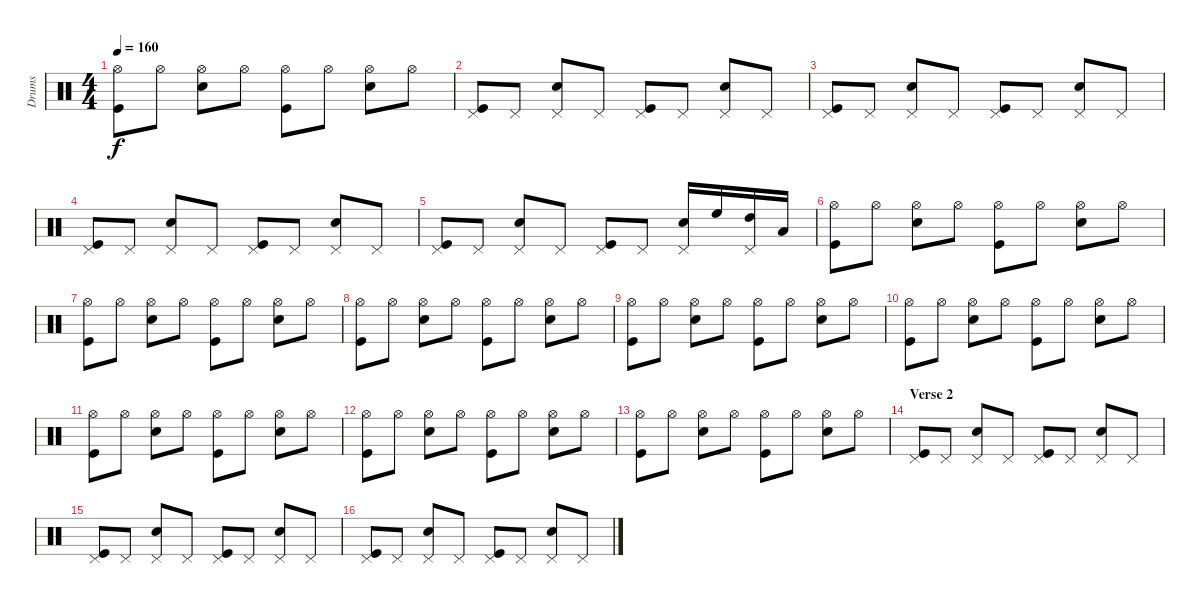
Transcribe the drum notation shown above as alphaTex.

\track ("Drums" "Drums") {instrument percussion}
\staff {score}
\articulation defaults
\ts (4 4)
\tempo 160
\clef neutral
\ks c
("Hi-Hat (open)" "Kick (hit)").8{dy f} "Hi-Hat (open)".8 ("Hi-Hat (open)" "Snare (hit) 2").8 "Hi-Hat (open)".8 ("Hi-Hat (open)" "Kick (hit)").8 "Hi-Hat (open)".8 ("Hi-Hat (open)" "Snare (hit) 2").8 "Hi-Hat (open)".8 |
("Pedal Hi-Hat (hit)" "Kick (hit)").8 "Pedal Hi-Hat (hit)".8 ("Pedal Hi-Hat (hit)" "Snare (hit) 2").8 "Pedal Hi-Hat (hit)".8 ("Pedal Hi-Hat (hit)" "Kick (hit)").8 "Pedal Hi-Hat (hit)".8 ("Pedal Hi-Hat (hit)" "Snare (hit) 2").8 "Pedal Hi-Hat (hit)".8 |
("Pedal Hi-Hat (hit)" "Kick (hit)").8 "Pedal Hi-Hat (hit)".8 ("Pedal Hi-Hat (hit)" "Snare (hit) 2").8 "Pedal Hi-Hat (hit)".8 ("Pedal Hi-Hat (hit)" "Kick (hit)").8 "Pedal Hi-Hat (hit)".8 ("Pedal Hi-Hat (hit)" "Snare (hit) 2").8 "Pedal Hi-Hat (hit)".8 |
("Pedal Hi-Hat (hit)" "Kick (hit)").8 "Pedal Hi-Hat (hit)".8 ("Pedal Hi-Hat (hit)" "Snare (hit) 2").8 "Pedal Hi-Hat (hit)".8 ("Pedal Hi-Hat (hit)" "Kick (hit)").8 "Pedal Hi-Hat (hit)".8 ("Pedal Hi-Hat (hit)" "Snare (hit) 2").8 "Pedal Hi-Hat (hit)".8 |
("Pedal Hi-Hat (hit)" "Kick (hit)").8 "Pedal Hi-Hat (hit)".8 ("Pedal Hi-Hat (hit)" "Snare (hit) 2").8 "Pedal Hi-Hat (hit)".8 ("Pedal Hi-Hat (hit)" "Kick (hit)").8 "Pedal Hi-Hat (hit)".8 ("Pedal Hi-Hat (hit)" "Snare (hit) 2").16 "High Floor Tom (hit)".16 ("Pedal Hi-Hat (hit)" "High Tom (hit)").16 "Low Tom (hit)".16 |
("Hi-Hat (open)" "Kick (hit)").8 "Hi-Hat (open)".8 ("Hi-Hat (open)" "Snare (hit) 2").8 "Hi-Hat (open)".8 ("Hi-Hat (open)" "Kick (hit)").8 "Hi-Hat (open)".8 ("Hi-Hat (open)" "Snare (hit) 2").8 "Hi-Hat (open)".8 |
("Hi-Hat (open)" "Kick (hit)").8 "Hi-Hat (open)".8 ("Hi-Hat (open)" "Snare (hit) 2").8 "Hi-Hat (open)".8 ("Hi-Hat (open)" "Kick (hit)").8 "Hi-Hat (open)".8 ("Hi-Hat (open)" "Snare (hit) 2").8 "Hi-Hat (open)".8 |
("Hi-Hat (open)" "Kick (hit)").8 "Hi-Hat (open)".8 ("Hi-Hat (open)" "Snare (hit) 2").8 "Hi-Hat (open)".8 ("Hi-Hat (open)" "Kick (hit)").8 "Hi-Hat (open)".8 ("Hi-Hat (open)" "Snare (hit) 2").8 "Hi-Hat (open)".8 |
("Hi-Hat (open)" "Kick (hit)").8 "Hi-Hat (open)".8 ("Hi-Hat (open)" "Snare (hit) 2").8 "Hi-Hat (open)".8 ("Hi-Hat (open)" "Kick (hit)").8 "Hi-Hat (open)".8 ("Hi-Hat (open)" "Snare (hit) 2").8 "Hi-Hat (open)".8 |
("Hi-Hat (open)" "Kick (hit)").8 "Hi-Hat (open)".8 ("Hi-Hat (open)" "Snare (hit) 2").8 "Hi-Hat (open)".8 ("Hi-Hat (open)" "Kick (hit)").8 "Hi-Hat (open)".8 ("Hi-Hat (open)" "Snare (hit) 2").8 "Hi-Hat (open)".8 |
("Hi-Hat (open)" "Kick (hit)").8 "Hi-Hat (open)".8 ("Hi-Hat (open)" "Snare (hit) 2").8 "Hi-Hat (open)".8 ("Hi-Hat (open)" "Kick (hit)").8 "Hi-Hat (open)".8 ("Hi-Hat (open)" "Snare (hit) 2").8 "Hi-Hat (open)".8 |
("Hi-Hat (open)" "Kick (hit)").8 "Hi-Hat (open)".8 ("Hi-Hat (open)" "Snare (hit) 2").8 "Hi-Hat (open)".8 ("Hi-Hat (open)" "Kick (hit)").8 "Hi-Hat (open)".8 ("Hi-Hat (open)" "Snare (hit) 2").8 "Hi-Hat (open)".8 |
("Hi-Hat (open)" "Kick (hit)").8 "Hi-Hat (open)".8 ("Hi-Hat (open)" "Snare (hit) 2").8 "Hi-Hat (open)".8 ("Hi-Hat (open)" "Kick (hit)").8 "Hi-Hat (open)".8 ("Hi-Hat (open)" "Snare (hit) 2").8 "Hi-Hat (open)".8 |
\section ("" "Verse 2")
("Pedal Hi-Hat (hit)" "Kick (hit)").8 "Pedal Hi-Hat (hit)".8 ("Pedal Hi-Hat (hit)" "Snare (hit) 2").8 "Pedal Hi-Hat (hit)".8 ("Pedal Hi-Hat (hit)" "Kick (hit)").8 "Pedal Hi-Hat (hit)".8 ("Pedal Hi-Hat (hit)" "Snare (hit) 2").8 "Pedal Hi-Hat (hit)".8 |
("Pedal Hi-Hat (hit)" "Kick (hit)").8 "Pedal Hi-Hat (hit)".8 ("Pedal Hi-Hat (hit)" "Snare (hit) 2").8 "Pedal Hi-Hat (hit)".8 ("Pedal Hi-Hat (hit)" "Kick (hit)").8 "Pedal Hi-Hat (hit)".8 ("Pedal Hi-Hat (hit)" "Snare (hit) 2").8 "Pedal Hi-Hat (hit)".8 |
("Pedal Hi-Hat (hit)" "Kick (hit)").8 "Pedal Hi-Hat (hit)".8 ("Pedal Hi-Hat (hit)" "Snare (hit) 2").8 "Pedal Hi-Hat (hit)".8 ("Pedal Hi-Hat (hit)" "Kick (hit)").8 "Pedal Hi-Hat (hit)".8 ("Pedal Hi-Hat (hit)" "Snare (hit) 2").8 "Pedal Hi-Hat (hit)".8
